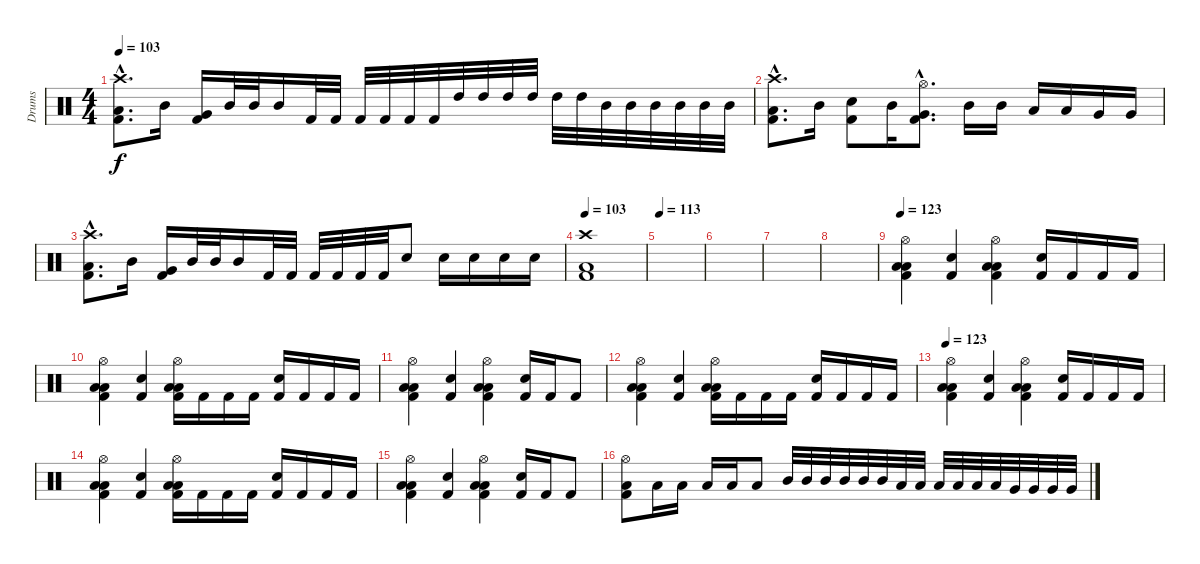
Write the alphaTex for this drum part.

\track ("Drums" "Drums") {instrument percussion}
\staff {score}
\articulation defaults
\ts (4 4)
\tempo 103
\clef neutral
\ks c
("Crash high (hit)"{hac} "Low Floor Tom (hit)"{hac} "Kick (hit) 2"{hac}).8{d dy f} "Mid Tom (hit)".16 ("Very Low Tom (hit)" "Kick (hit) 2").16 "Mid Tom (hit)".32 "Mid Tom (hit)".32 "Mid Tom (hit)".16 "Kick (hit) 2".32 "Kick (hit) 2".32 "Kick (hit) 2".32 "Kick (hit) 2".32 "Kick (hit) 2".32 "Kick (hit) 2".32 "High Tom (hit)".32 "High Tom (hit)".32 "High Tom (hit)".32 "High Tom (hit)".32 "High Tom (hit)".32 "High Tom (hit)".32 "Mid Tom (hit)".32 "Mid Tom (hit)".32 "Mid Tom (hit)".32 "Mid Tom (hit)".32 "Mid Tom (hit)".32 "Mid Tom (hit)".32 |
("Crash high (hit)"{hac} "Low Floor Tom (hit)"{hac} "Kick (hit) 2"{hac}).8{d} "Mid Tom (hit)".16 ("Snare (hit) 2" "Kick (hit) 2").8 "Mid Tom (hit)".16 ("Hi-Hat (open)"{hac} "Very Low Tom (hit)"{hac} "Kick (hit) 2"{hac}).8{d} "Mid Tom (hit)".16 "Mid Tom (hit)".16 "Low Tom (hit)".16 "Low Tom (hit)".16 "Very Low Tom (hit)".16 "Very Low Tom (hit)".16 |
("Crash high (hit)"{hac} "Low Floor Tom (hit)"{hac} "Kick (hit) 2"{hac}).8{d} "Mid Tom (hit)".16 ("Very Low Tom (hit)" "Kick (hit) 2").16 "Mid Tom (hit)".32 "Mid Tom (hit)".32 "Mid Tom (hit)".16 "Kick (hit) 2".32 "Kick (hit) 2".32 "Kick (hit) 2".32 "Kick (hit) 2".32 "Kick (hit) 2".32 "Kick (hit) 2".32 "Electric Snare (hit)".8 "Electric Snare (hit)".16 "Electric Snare (hit)".16 "Electric Snare (hit)".16 "Electric Snare (hit)".16 |
\tempo 103
("Crash high (hit)" "Low Floor Tom (hit)" "Kick (hit) 2").1 |
\tempo 113
|
|
|
|
\tempo 123
("Hi-Hat (open)" "Low Floor Tom (hit)" "Low Floor Tom (hit)" "Kick (hit) 2").4 ("Snare (hit) 2" "Kick (hit) 2").4 ("Hi-Hat (open)" "Low Floor Tom (hit)" "Low Floor Tom (hit)" "Kick (hit) 2").4 ("Snare (hit) 2" "Kick (hit) 2").16 "Kick (hit) 2".16 "Kick (hit) 2".16 "Kick (hit) 2".16 |
("Hi-Hat (open)" "Low Floor Tom (hit)" "Low Floor Tom (hit)" "Kick (hit) 2").4 ("Snare (hit) 2" "Kick (hit) 2").4 ("Hi-Hat (open)" "Low Floor Tom (hit)" "Low Floor Tom (hit)" "Kick (hit) 2").16 "Kick (hit) 2".16 "Kick (hit) 2".16 "Kick (hit) 2".16 ("Snare (hit) 2" "Kick (hit) 2").16 "Kick (hit) 2".16 "Kick (hit) 2".16 "Kick (hit) 2".16 |
("Hi-Hat (open)" "Low Floor Tom (hit)" "Low Floor Tom (hit)" "Kick (hit) 2").4 ("Snare (hit) 2" "Kick (hit) 2").4 ("Hi-Hat (open)" "Low Floor Tom (hit)" "Low Floor Tom (hit)" "Kick (hit) 2").4 ("Snare (hit) 2" "Kick (hit) 2").16 "Kick (hit) 2".16 "Kick (hit) 2".8 |
("Hi-Hat (open)" "Low Floor Tom (hit)" "Low Floor Tom (hit)" "Kick (hit) 2").4 ("Snare (hit) 2" "Kick (hit) 2").4 ("Hi-Hat (open)" "Low Floor Tom (hit)" "Low Floor Tom (hit)" "Kick (hit) 2").16 "Kick (hit) 2".16 "Kick (hit) 2".16 "Kick (hit) 2".16 ("Snare (hit) 2" "Kick (hit) 2").16 "Kick (hit) 2".16 "Kick (hit) 2".16 "Kick (hit) 2".16 |
\tempo 123
("Hi-Hat (open)" "Low Floor Tom (hit)" "Low Floor Tom (hit)" "Kick (hit) 2").4 ("Snare (hit) 2" "Kick (hit) 2").4 ("Hi-Hat (open)" "Low Floor Tom (hit)" "Low Floor Tom (hit)" "Kick (hit) 2").4 ("Snare (hit) 2" "Kick (hit) 2").16 "Kick (hit) 2".16 "Kick (hit) 2".16 "Kick (hit) 2".16 |
("Hi-Hat (open)" "Low Floor Tom (hit)" "Low Floor Tom (hit)" "Kick (hit) 2").4 ("Snare (hit) 2" "Kick (hit) 2").4 ("Hi-Hat (open)" "Low Floor Tom (hit)" "Low Floor Tom (hit)" "Kick (hit) 2").16 "Kick (hit) 2".16 "Kick (hit) 2".16 "Kick (hit) 2".16 ("Snare (hit) 2" "Kick (hit) 2").16 "Kick (hit) 2".16 "Kick (hit) 2".16 "Kick (hit) 2".16 |
("Hi-Hat (open)" "Low Floor Tom (hit)" "Low Floor Tom (hit)" "Kick (hit) 2").4 ("Snare (hit) 2" "Kick (hit) 2").4 ("Hi-Hat (open)" "Low Floor Tom (hit)" "Low Floor Tom (hit)" "Kick (hit) 2").4 ("Snare (hit) 2" "Kick (hit) 2").16 "Kick (hit) 2".16 "Kick (hit) 2".8 |
("Hi-Hat (open)" "Low Floor Tom (hit)" "Kick (hit) 2").8 "Low Floor Tom (hit)".16 "Low Floor Tom (hit)".16 "Low Floor Tom (hit)".16 "Low Floor Tom (hit)".16 "Low Tom (hit)".8 "Mid Tom (hit)".32 "Mid Tom (hit)".32 "Mid Tom (hit)".32 "Mid Tom (hit)".32 "Mid Tom (hit)".32 "Mid Tom (hit)".32 "Low Tom (hit)".32 "Low Tom (hit)".32 "Low Tom (hit)".32 "Low Tom (hit)".32 "Low Tom (hit)".32 "Low Tom (hit)".32 "Very Low Tom (hit)".32 "Very Low Tom (hit)".32 "Very Low Tom (hit)".32 "Very Low Tom (hit)".32
